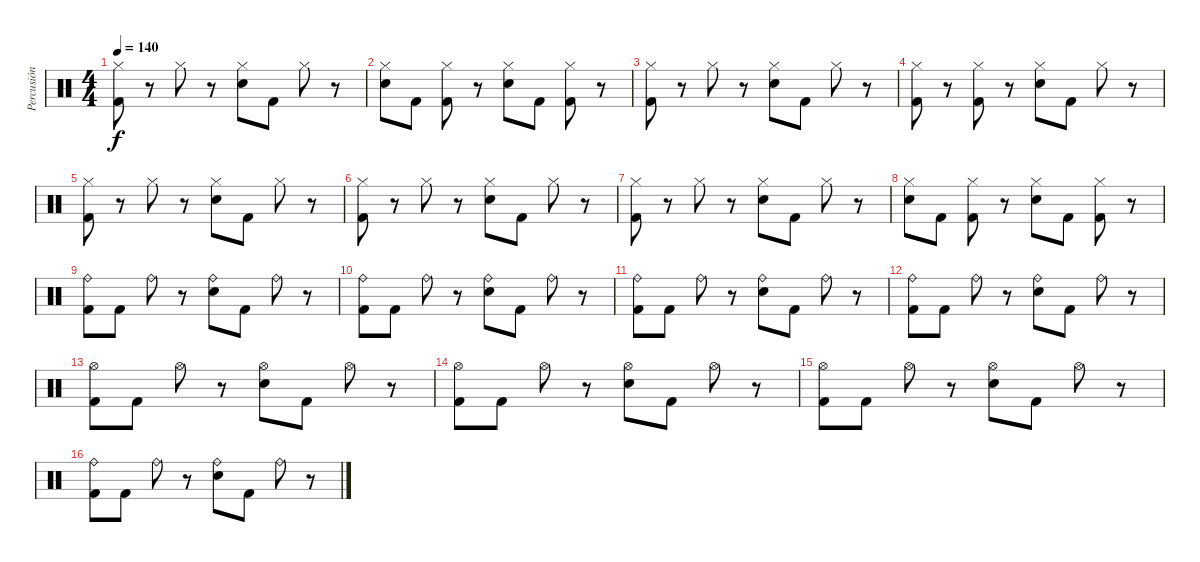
\track ("Percusión" "Percusión") {instrument percussion}
\staff {score}
\articulation defaults
\ts (4 4)
\tempo 140
\clef neutral
\ks c
("Hi-Hat (closed)" "Kick (hit) 2").8{dy f} r.8 "Hi-Hat (closed)".8 r.8 ("Hi-Hat (closed)" "Snare (hit) 2").8 "Kick (hit) 2".8 "Hi-Hat (closed)".8 r.8 |
("Hi-Hat (closed)" "Snare (hit) 2").8 "Kick (hit) 2".8 ("Hi-Hat (closed)" "Kick (hit) 2").8 r.8 ("Hi-Hat (closed)" "Snare (hit) 2").8 "Kick (hit) 2".8 ("Hi-Hat (closed)" "Kick (hit) 2").8 r.8 |
("Hi-Hat (closed)" "Kick (hit) 2").8 r.8 "Hi-Hat (closed)".8 r.8 ("Hi-Hat (closed)" "Snare (hit) 2").8 "Kick (hit) 2".8 "Hi-Hat (closed)".8 r.8 |
("Hi-Hat (closed)" "Kick (hit) 2").8 r.8 ("Hi-Hat (closed)" "Kick (hit) 2").8 r.8 ("Hi-Hat (closed)" "Snare (hit) 2").8 "Kick (hit) 2".8 "Hi-Hat (closed)".8 r.8 |
("Hi-Hat (closed)" "Kick (hit) 2").8 r.8 "Hi-Hat (closed)".8 r.8 ("Hi-Hat (closed)" "Snare (hit) 2").8 "Kick (hit) 2".8 "Hi-Hat (closed)".8 r.8 |
("Hi-Hat (closed)" "Kick (hit) 2").8 r.8 "Hi-Hat (closed)".8 r.8 ("Hi-Hat (closed)" "Snare (hit) 2").8 "Kick (hit) 2".8 "Hi-Hat (closed)".8 r.8 |
("Hi-Hat (closed)" "Kick (hit) 2").8 r.8 "Hi-Hat (closed)".8 r.8 ("Hi-Hat (closed)" "Snare (hit) 2").8 "Kick (hit) 2".8 "Hi-Hat (closed)".8 r.8 |
("Hi-Hat (closed)" "Snare (hit) 2").8 "Kick (hit) 2".8 ("Hi-Hat (closed)" "Kick (hit) 2").8 r.8 ("Hi-Hat (closed)" "Snare (hit) 2").8 "Kick (hit) 2".8 ("Hi-Hat (closed)" "Kick (hit) 2").8 r.8 |
("Ride (bell)" "Kick (hit) 2").8 "Kick (hit) 2".8 "Ride (bell)".8 r.8 ("Ride (bell)" "Snare (hit) 2").8 "Kick (hit) 2".8 "Ride (bell)".8 r.8 |
("Ride (bell)" "Kick (hit) 2").8 "Kick (hit) 2".8 "Ride (bell)".8 r.8 ("Ride (bell)" "Snare (hit) 2").8 "Kick (hit) 2".8 "Ride (bell)".8 r.8 |
("Ride (bell)" "Kick (hit) 2").8 "Kick (hit) 2".8 "Ride (bell)".8 r.8 ("Ride (bell)" "Snare (hit) 2").8 "Kick (hit) 2".8 "Ride (bell)".8 r.8 |
("Ride (bell)" "Kick (hit) 2").8 "Kick (hit) 2".8 "Ride (bell)".8 r.8 ("Ride (bell)" "Snare (hit) 2").8 "Kick (hit) 2".8 "Ride (bell)".8 r.8 |
("Hi-Hat (open)" "Kick (hit) 2").8 "Kick (hit) 2".8 "Hi-Hat (open)".8 r.8 ("Hi-Hat (open)" "Snare (hit) 2").8 "Kick (hit) 2".8 "Hi-Hat (open)".8 r.8 |
("Hi-Hat (open)" "Kick (hit) 2").8 "Kick (hit) 2".8 "Hi-Hat (open)".8 r.8 ("Hi-Hat (open)" "Snare (hit) 2").8 "Kick (hit) 2".8 "Hi-Hat (open)".8 r.8 |
("Hi-Hat (open)" "Kick (hit) 2").8 "Kick (hit) 2".8 "Hi-Hat (open)".8 r.8 ("Hi-Hat (open)" "Snare (hit) 2").8 "Kick (hit) 2".8 "Hi-Hat (open)".8 r.8 |
("Ride (bell)" "Kick (hit) 2").8 "Kick (hit) 2".8 "Ride (bell)".8 r.8 ("Ride (bell)" "Snare (hit) 2").8 "Kick (hit) 2".8 "Ride (bell)".8 r.8
